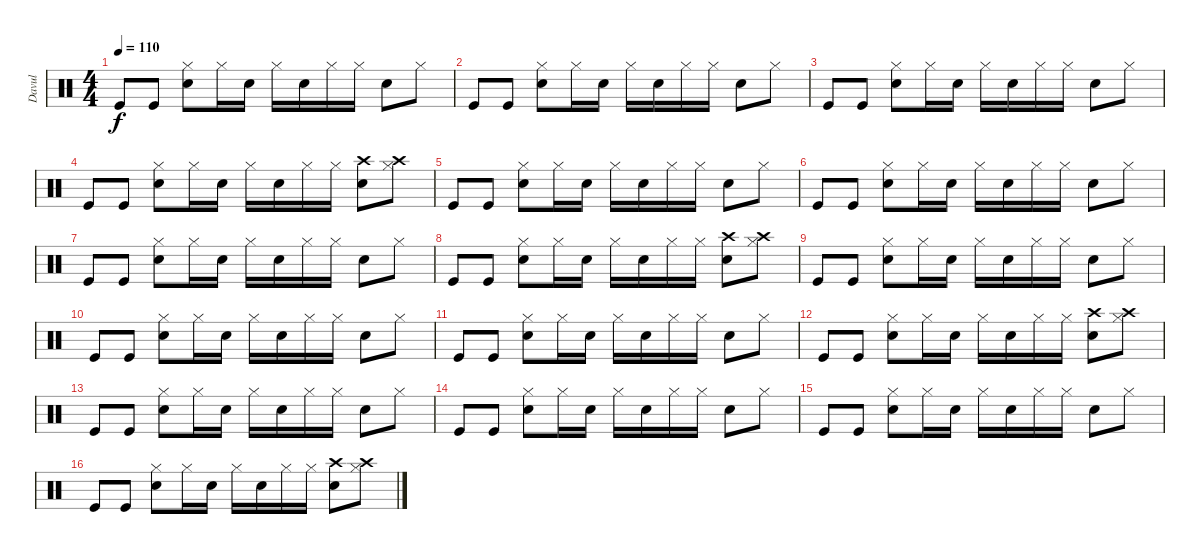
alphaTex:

\track ("Davul" "Davul") {instrument percussion}
\staff {score}
\articulation defaults
\ts (4 4)
\tempo 110
\clef neutral
\ks c "Kick (hit)".8{dy f} "Kick (hit)".8
("Snare (hit) 2" "Hi-Hat (closed)").8 "Hi-Hat (closed)".16 "Snare (hit) 2".16 "Hi-Hat (closed)".16 "Snare (hit) 2".16 "Hi-Hat (closed)".16 "Hi-Hat (closed)".16 "Snare (hit) 2".8 "Hi-Hat (closed)".8 |
"Kick (hit)".8 "Kick (hit)".8 ("Snare (hit) 2" "Hi-Hat (closed)").8 "Hi-Hat (closed)".16 "Snare (hit) 2".16 "Hi-Hat (closed)".16 "Snare (hit) 2".16 "Hi-Hat (closed)".16 "Hi-Hat (closed)".16 "Snare (hit) 2".8 "Hi-Hat (closed)".8 |
"Kick (hit)".8 "Kick (hit)".8 ("Snare (hit) 2" "Hi-Hat (closed)").8 "Hi-Hat (closed)".16 "Snare (hit) 2".16 "Hi-Hat (closed)".16 "Snare (hit) 2".16 "Hi-Hat (closed)".16 "Hi-Hat (closed)".16 "Snare (hit) 2".8 "Hi-Hat (closed)".8 |
"Kick (hit)".8 "Kick (hit)".8 ("Snare (hit) 2" "Hi-Hat (closed)").8 "Hi-Hat (closed)".16 "Snare (hit) 2".16 "Hi-Hat (closed)".16 "Snare (hit) 2".16 "Hi-Hat (closed)".16 "Hi-Hat (closed)".16 ("Crash high (hit)" "Snare (hit) 2").8 ("Crash high (hit)" "Hi-Hat (closed)").8 |
"Kick (hit)".8 "Kick (hit)".8 ("Snare (hit) 2" "Hi-Hat (closed)").8 "Hi-Hat (closed)".16 "Snare (hit) 2".16 "Hi-Hat (closed)".16 "Snare (hit) 2".16 "Hi-Hat (closed)".16 "Hi-Hat (closed)".16 "Snare (hit) 2".8 "Hi-Hat (closed)".8 |
"Kick (hit)".8 "Kick (hit)".8 ("Snare (hit) 2" "Hi-Hat (closed)").8 "Hi-Hat (closed)".16 "Snare (hit) 2".16 "Hi-Hat (closed)".16 "Snare (hit) 2".16 "Hi-Hat (closed)".16 "Hi-Hat (closed)".16 "Snare (hit) 2".8 "Hi-Hat (closed)".8 |
"Kick (hit)".8 "Kick (hit)".8 ("Snare (hit) 2" "Hi-Hat (closed)").8 "Hi-Hat (closed)".16 "Snare (hit) 2".16 "Hi-Hat (closed)".16 "Snare (hit) 2".16 "Hi-Hat (closed)".16 "Hi-Hat (closed)".16 "Snare (hit) 2".8 "Hi-Hat (closed)".8 |
"Kick (hit)".8 "Kick (hit)".8 ("Snare (hit) 2" "Hi-Hat (closed)").8 "Hi-Hat (closed)".16 "Snare (hit) 2".16 "Hi-Hat (closed)".16 "Snare (hit) 2".16 "Hi-Hat (closed)".16 "Hi-Hat (closed)".16 ("Crash high (hit)" "Snare (hit) 2").8 ("Crash high (hit)" "Hi-Hat (closed)").8 |
"Kick (hit)".8 "Kick (hit)".8 ("Snare (hit) 2" "Hi-Hat (closed)").8 "Hi-Hat (closed)".16 "Snare (hit) 2".16 "Hi-Hat (closed)".16 "Snare (hit) 2".16 "Hi-Hat (closed)".16 "Hi-Hat (closed)".16 "Snare (hit) 2".8 "Hi-Hat (closed)".8 |
"Kick (hit)".8 "Kick (hit)".8 ("Snare (hit) 2" "Hi-Hat (closed)").8 "Hi-Hat (closed)".16 "Snare (hit) 2".16 "Hi-Hat (closed)".16 "Snare (hit) 2".16 "Hi-Hat (closed)".16 "Hi-Hat (closed)".16 "Snare (hit) 2".8 "Hi-Hat (closed)".8 |
"Kick (hit)".8 "Kick (hit)".8 ("Snare (hit) 2" "Hi-Hat (closed)").8 "Hi-Hat (closed)".16 "Snare (hit) 2".16 "Hi-Hat (closed)".16 "Snare (hit) 2".16 "Hi-Hat (closed)".16 "Hi-Hat (closed)".16 "Snare (hit) 2".8 "Hi-Hat (closed)".8 |
"Kick (hit)".8 "Kick (hit)".8 ("Snare (hit) 2" "Hi-Hat (closed)").8 "Hi-Hat (closed)".16 "Snare (hit) 2".16 "Hi-Hat (closed)".16 "Snare (hit) 2".16 "Hi-Hat (closed)".16 "Hi-Hat (closed)".16 ("Crash high (hit)" "Snare (hit) 2").8 ("Crash high (hit)" "Hi-Hat (closed)").8 |
"Kick (hit)".8 "Kick (hit)".8 ("Snare (hit) 2" "Hi-Hat (closed)").8 "Hi-Hat (closed)".16 "Snare (hit) 2".16 "Hi-Hat (closed)".16 "Snare (hit) 2".16 "Hi-Hat (closed)".16 "Hi-Hat (closed)".16 "Snare (hit) 2".8 "Hi-Hat (closed)".8 |
"Kick (hit)".8 "Kick (hit)".8 ("Snare (hit) 2" "Hi-Hat (closed)").8 "Hi-Hat (closed)".16 "Snare (hit) 2".16 "Hi-Hat (closed)".16 "Snare (hit) 2".16 "Hi-Hat (closed)".16 "Hi-Hat (closed)".16 "Snare (hit) 2".8 "Hi-Hat (closed)".8 |
"Kick (hit)".8 "Kick (hit)".8 ("Snare (hit) 2" "Hi-Hat (closed)").8 "Hi-Hat (closed)".16 "Snare (hit) 2".16 "Hi-Hat (closed)".16 "Snare (hit) 2".16 "Hi-Hat (closed)".16 "Hi-Hat (closed)".16 "Snare (hit) 2".8 "Hi-Hat (closed)".8 |
"Kick (hit)".8 "Kick (hit)".8 ("Snare (hit) 2" "Hi-Hat (closed)").8 "Hi-Hat (closed)".16 "Snare (hit) 2".16 "Hi-Hat (closed)".16 "Snare (hit) 2".16 "Hi-Hat (closed)".16 "Hi-Hat (closed)".16 ("Crash high (hit)" "Snare (hit) 2").8 ("Crash high (hit)" "Hi-Hat (closed)").8
